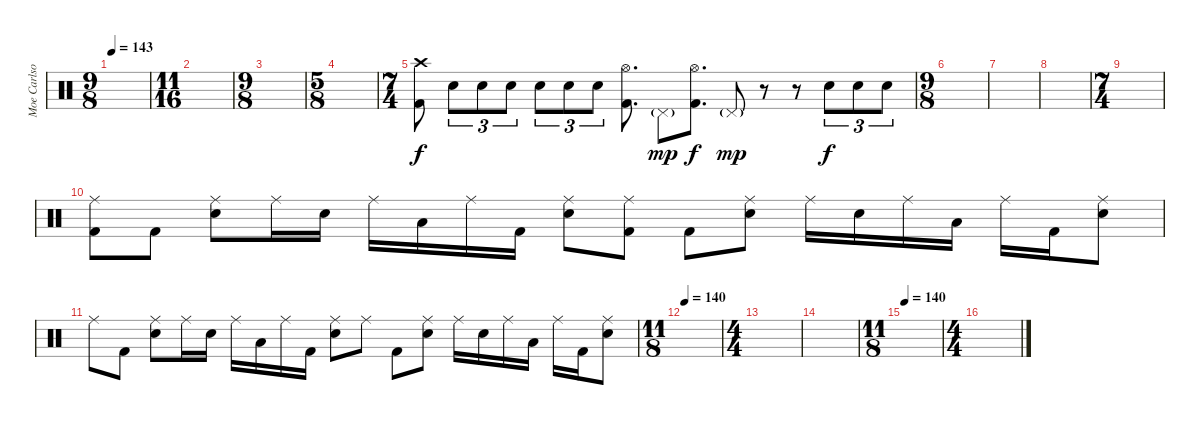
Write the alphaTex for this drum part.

\track ("Moe Carlson" "Moe Carlso") {solo instrument percussion}
\staff {score}
\articulation defaults
\ts (9 8)
\tempo 143
\clef neutral
\ks c
|
\ts (11 16)
|
\ts (9 8)
|
\ts (5 8)
|
\ts (7 4)
("Crash high (hit)" "Kick (hit) 2").8 "Electric Snare (hit)".8{tu (3 2)} "Electric Snare (hit)".8{tu (3 2)} "Electric Snare (hit)".8{tu (3 2)} "Electric Snare (hit)".8{tu (3 2)} "Electric Snare (hit)".8{tu (3 2)} "Electric Snare (hit)".8{tu (3 2)} ("Hi-Hat (open)" "Kick (hit) 2").8{d} "Pedal Hi-Hat (hit)"{g}.8{dy mp} ("Hi-Hat (open)" "Kick (hit) 2").8{d dy f} "Pedal Hi-Hat (hit)"{g}.8{dy mp} r.8 r.8 "Electric Snare (hit)".8{tu (3 2) dy f} "Electric Snare (hit)".8{tu (3 2)} "Electric Snare (hit)".8{tu (3 2)} |
\ts (9 8)
|
|
|
\ts (7 4)
|
("Ride (middle)" "Kick (hit) 2").8 "Kick (hit) 2".8 ("Ride (middle)" "Electric Snare (hit)").8 "Ride (middle)".16 "Electric Snare (hit)".16 "Ride (middle)".16 "Low Tom (hit)".16 "Ride (middle)".16 "Kick (hit) 2".16 ("Ride (middle)" "Electric Snare (hit)").8 ("Ride (middle)" "Kick (hit) 2").8 "Kick (hit) 2".8 ("Ride (middle)" "Electric Snare (hit)").8 "Ride (middle)".16 "Electric Snare (hit)".16 "Ride (middle)".16 "Low Tom (hit)".16 "Ride (middle)".16 "Kick (hit) 2".16 ("Ride (middle)" "Electric Snare (hit)").8 |
"Ride (middle)".8 "Kick (hit) 2".8 ("Ride (middle)" "Electric Snare (hit)").8 "Ride (middle)".16 "Electric Snare (hit)".16 "Ride (middle)".16 "Low Tom (hit)".16 "Ride (middle)".16 "Kick (hit) 2".16 ("Ride (middle)" "Electric Snare (hit)").8 "Ride (middle)".8 "Kick (hit) 2".8 ("Ride (middle)" "Electric Snare (hit)").8 "Ride (middle)".16 "Electric Snare (hit)".16 "Ride (middle)".16 "Low Tom (hit)".16 "Ride (middle)".16 "Kick (hit) 2".16 ("Ride (middle)" "Electric Snare (hit)").8 |
\ts (11 8)
\tempo 140
|
\ts (4 4)
|
|
\ts (11 8)
\tempo 140
|
\ts (4 4)
